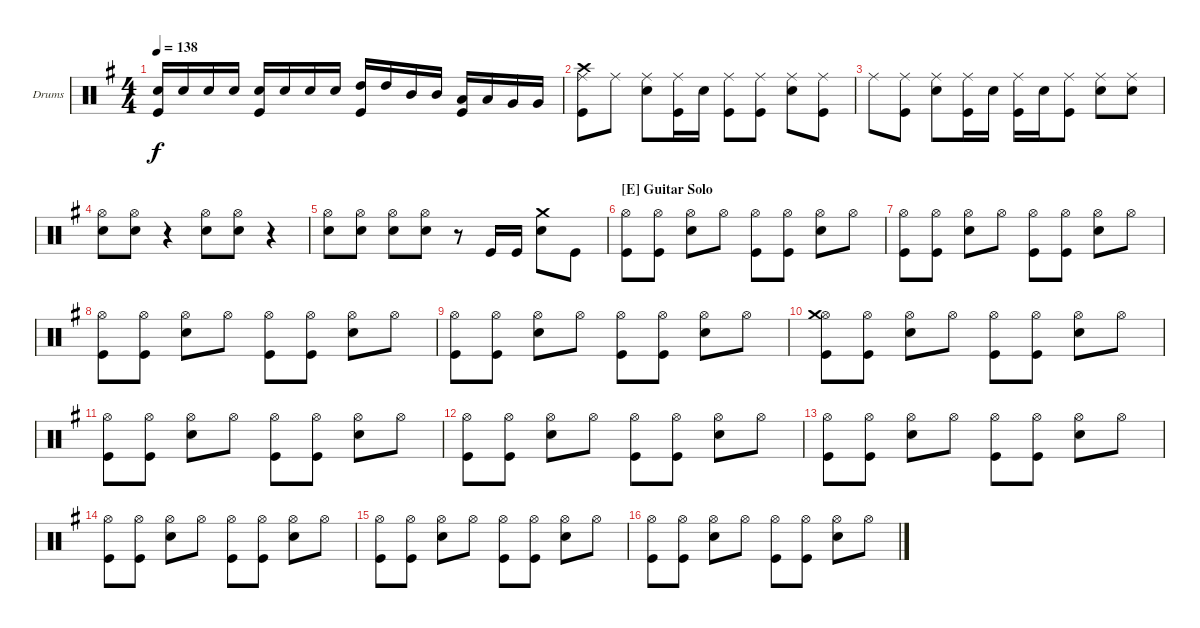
\defaultSystemsLayout 4
\bracketExtendMode groupsimilarinstruments
\firstSystemTrackNameOrientation horizontal
\otherSystemsTrackNameOrientation horizontal
\track ("Drumkit" "Drums") {instrument percussion}
\staff {score}
\articulation defaults
\ts (4 4)
\tempo 138
\clef neutral
\scale
1.04288
\ks g
("Snare (hit) 2" "Kick (hit)").16{dy f} "Snare (hit) 2".16 "Snare (hit) 2".16 "Snare (hit) 2".16 ("Snare (hit) 2" "Kick (hit)").16 "Snare (hit) 2".16 "Snare (hit) 2".16 "Snare (hit) 2".16 ("High Tom (hit)" "Kick (hit)").16 "High Tom (hit)".16 "Mid Tom (hit)".16 "Mid Tom (hit)".16 ("Low Tom (hit)" "Kick (hit)").16 "Low Tom (hit)".16 "Very Low Tom (hit)".16 "Very Low Tom (hit)".16 |
\scale
0.957125 ("Ride (middle)" "Crash high (hit)" "Kick (hit)").8 "Ride (middle)".8 ("Ride (middle)" "Snare (hit) 2").8 ("Ride (middle)" "Kick (hit)").16 "Snare (hit) 2".16 ("Ride (middle)" "Kick (hit)").8 ("Ride (middle)" "Kick (hit)").8 ("Ride (middle)" "Snare (hit) 2").8 ("Ride (middle)" "Kick (hit)").8 |
\scale
1.04288 "Ride (middle)".8 ("Ride (middle)" "Kick (hit)").8 ("Ride (middle)" "Snare (hit) 2").8 ("Ride (middle)" "Kick (hit)").16 "Snare (hit) 2".16 ("Ride (middle)" "Kick (hit)").16 "Snare (hit) 2".16 ("Ride (middle)" "Kick (hit)").8 ("Ride (middle)" "Snare (hit) 2").8 ("Ride (middle)" "Snare (hit) 2").8 |
\scale
0.957125 ("Hi-Hat (open)" "Snare (hit) 2").8 ("Hi-Hat (open)" "Snare (hit) 2").8 r.4 ("Hi-Hat (open)" "Snare (hit) 2").8 ("Hi-Hat (open)" "Snare (hit) 2").8 r.4 |
\scale
1.04288 ("Hi-Hat (open)" "Snare (hit) 2").8 ("Hi-Hat (open)" "Snare (hit) 2").8 ("Hi-Hat (open)" "Snare (hit) 2").8 ("Hi-Hat (open)" "Snare (hit) 2").8 r.8 "Kick (hit)".16 "Kick (hit)".16 ("Crash medium (hit)" "Snare (hit) 2").8 "Kick (hit)".8 |
\section ("E" "Guitar Solo")
\scale
0.957125 ("Hi-Hat (open)" "Kick (hit)").8 ("Hi-Hat (open)" "Kick (hit)").8 ("Hi-Hat (open)" "Snare (hit) 2").8 "Hi-Hat (open)".8 ("Hi-Hat (open)" "Kick (hit)").8 ("Hi-Hat (open)" "Kick (hit)").8 ("Hi-Hat (open)" "Snare (hit) 2").8 "Hi-Hat (open)".8 |
\scale
1.04288 ("Hi-Hat (open)" "Kick (hit)").8 ("Hi-Hat (open)" "Kick (hit)").8 ("Hi-Hat (open)" "Snare (hit) 2").8 "Hi-Hat (open)".8 ("Hi-Hat (open)" "Kick (hit)").8 ("Hi-Hat (open)" "Kick (hit)").8 ("Hi-Hat (open)" "Snare (hit) 2").8 "Hi-Hat (open)".8 |
\scale
0.957125 ("Hi-Hat (open)" "Kick (hit)").8 ("Hi-Hat (open)" "Kick (hit)").8 ("Hi-Hat (open)" "Snare (hit) 2").8 "Hi-Hat (open)".8 ("Hi-Hat (open)" "Kick (hit)").8 ("Hi-Hat (open)" "Kick (hit)").8 ("Hi-Hat (open)" "Snare (hit) 2").8 "Hi-Hat (open)".8 |
\scale
1.04288 ("Hi-Hat (open)" "Kick (hit)").8 ("Hi-Hat (open)" "Kick (hit)").8 ("Hi-Hat (open)" "Snare (hit) 2").8 "Hi-Hat (open)".8 ("Hi-Hat (open)" "Kick (hit)").8 ("Hi-Hat (open)" "Kick (hit)").8 ("Hi-Hat (open)" "Snare (hit) 2").8 "Hi-Hat (open)".8 |
\scale
0.957125 ("Hi-Hat (open)" "Crash medium (hit)" "Kick (hit)").8 ("Hi-Hat (open)" "Kick (hit)").8 ("Hi-Hat (open)" "Snare (hit) 2").8 "Hi-Hat (open)".8 ("Hi-Hat (open)" "Kick (hit)").8 ("Hi-Hat (open)" "Kick (hit)").8 ("Hi-Hat (open)" "Snare (hit) 2").8 "Hi-Hat (open)".8 |
\scale
1.04288 ("Hi-Hat (open)" "Kick (hit)").8 ("Hi-Hat (open)" "Kick (hit)").8 ("Hi-Hat (open)" "Snare (hit) 2").8 "Hi-Hat (open)".8 ("Hi-Hat (open)" "Kick (hit)").8 ("Hi-Hat (open)" "Kick (hit)").8 ("Hi-Hat (open)" "Snare (hit) 2").8 "Hi-Hat (open)".8 |
\scale
0.957125 ("Hi-Hat (open)" "Kick (hit)").8 ("Hi-Hat (open)" "Kick (hit)").8 ("Hi-Hat (open)" "Snare (hit) 2").8 "Hi-Hat (open)".8 ("Hi-Hat (open)" "Kick (hit)").8 ("Hi-Hat (open)" "Kick (hit)").8 ("Hi-Hat (open)" "Snare (hit) 2").8 "Hi-Hat (open)".8 |
\scale
1.04288 ("Hi-Hat (open)" "Kick (hit)").8 ("Hi-Hat (open)" "Kick (hit)").8 ("Hi-Hat (open)" "Snare (hit) 2").8 "Hi-Hat (open)".8 ("Hi-Hat (open)" "Kick (hit)").8 ("Hi-Hat (open)" "Kick (hit)").8 ("Hi-Hat (open)" "Snare (hit) 2").8 "Hi-Hat (open)".8 |
\scale
0.957125 ("Hi-Hat (open)" "Kick (hit)").8 ("Hi-Hat (open)" "Kick (hit)").8 ("Hi-Hat (open)" "Snare (hit) 2").8 "Hi-Hat (open)".8 ("Hi-Hat (open)" "Kick (hit)").8 ("Hi-Hat (open)" "Kick (hit)").8 ("Hi-Hat (open)" "Snare (hit) 2").8 "Hi-Hat (open)".8 |
\scale
1.04288 ("Hi-Hat (open)" "Kick (hit)").8 ("Hi-Hat (open)" "Kick (hit)").8 ("Hi-Hat (open)" "Snare (hit) 2").8 "Hi-Hat (open)".8 ("Hi-Hat (open)" "Kick (hit)").8 ("Hi-Hat (open)" "Kick (hit)").8 ("Hi-Hat (open)" "Snare (hit) 2").8 "Hi-Hat (open)".8 |
\scale
0.957125 ("Hi-Hat (open)" "Kick (hit)").8 ("Hi-Hat (open)" "Kick (hit)").8 ("Hi-Hat (open)" "Snare (hit) 2").8 "Hi-Hat (open)".8 ("Hi-Hat (open)" "Kick (hit)").8 ("Hi-Hat (open)" "Kick (hit)").8 ("Hi-Hat (open)" "Snare (hit) 2").8 "Hi-Hat (open)".8
